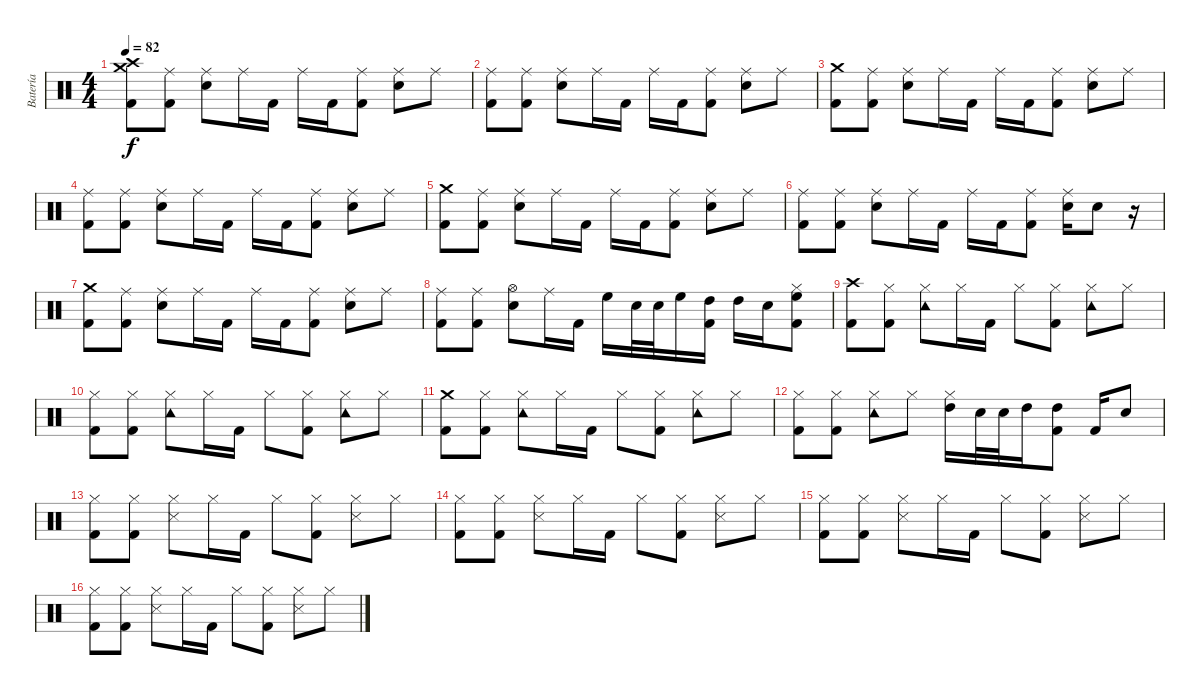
\track ("Batería" "Batería") {instrument percussion}
\staff {score}
\articulation defaults
\ts (4 4)
\tempo 82
\clef neutral
\ks c
("Crash medium (hit)" "Crash high (hit)" "Kick (hit) 2").8{dy f} ("Ride (middle)" "Kick (hit) 2").8 ("Ride (middle)" "Electric Snare (hit)").8 "Ride (middle)".16 "Kick (hit) 2".16 "Ride (middle)".16 "Kick (hit) 2".16 ("Ride (middle)" "Kick (hit) 2").8 ("Ride (middle)" "Electric Snare (hit)").8 "Ride (middle)".8 |
("Ride (middle)" "Kick (hit) 2").8 ("Ride (middle)" "Kick (hit) 2").8 ("Ride (middle)" "Electric Snare (hit)").8 "Ride (middle)".16 "Kick (hit) 2".16 "Ride (middle)".16 "Kick (hit) 2".16 ("Ride (middle)" "Kick (hit) 2").8 ("Ride (middle)" "Electric Snare (hit)").8 "Ride (middle)".8 |
("Crash medium (hit)" "Kick (hit) 2").8 ("Ride (middle)" "Kick (hit) 2").8 ("Ride (middle)" "Electric Snare (hit)").8 "Ride (middle)".16 "Kick (hit) 2".16 "Ride (middle)".16 "Kick (hit) 2".16 ("Ride (middle)" "Kick (hit) 2").8 ("Ride (middle)" "Electric Snare (hit)").8 "Ride (middle)".8 |
("Ride (middle)" "Kick (hit) 2").8 ("Ride (middle)" "Kick (hit) 2").8 ("Ride (middle)" "Electric Snare (hit)").8 "Ride (middle)".16 "Kick (hit) 2".16 "Ride (middle)".16 "Kick (hit) 2".16 ("Ride (middle)" "Kick (hit) 2").8 ("Ride (middle)" "Electric Snare (hit)").8 "Ride (middle)".8 |
("Crash medium (hit)" "Kick (hit) 2").8 ("Ride (middle)" "Kick (hit) 2").8 ("Ride (middle)" "Electric Snare (hit)").8 "Ride (middle)".16 "Kick (hit) 2".16 "Ride (middle)".16 "Kick (hit) 2".16 ("Ride (middle)" "Kick (hit) 2").8 ("Ride (middle)" "Electric Snare (hit)").8 "Ride (middle)".8 |
("Ride (middle)" "Kick (hit) 2").8 ("Ride (middle)" "Kick (hit) 2").8 ("Ride (middle)" "Electric Snare (hit)").8 "Ride (middle)".16 "Kick (hit) 2".16 "Ride (middle)".16 "Kick (hit) 2".16 ("Ride (middle)" "Kick (hit) 2").8 ("Ride (middle)" "Electric Snare (hit)").16 "Electric Snare (hit)".8 r.16 |
("Crash medium (hit)" "Kick (hit) 2").8 ("Ride (middle)" "Kick (hit) 2").8 ("Ride (middle)" "Electric Snare (hit)").8 "Ride (middle)".16 "Kick (hit) 2".16 "Ride (middle)".16 "Kick (hit) 2".16 ("Ride (middle)" "Kick (hit) 2").8 ("Ride (middle)" "Electric Snare (hit)").8 "Ride (middle)".8 |
("Ride (middle)" "Kick (hit) 2").8 ("Ride (middle)" "Kick (hit) 2").8 ("Hi-Hat (open)" "Electric Snare (hit)").8 "Ride (middle)".16 "Kick (hit) 2".16 "High Floor Tom (hit)".16 "Electric Snare (hit)".32 "Electric Snare (hit)".32 "High Floor Tom (hit)".16 ("Kick (hit) 2" "High Tom (hit)").16 "High Tom (hit)".16 "Electric Snare (hit)".16 ("Kick (hit) 2" "High Floor Tom (hit)" "Hi-Hat (closed)").8 |
("Crash high (hit)" "Kick (hit) 2").8 ("Hi-Hat (closed)" "Kick (hit) 2").8{volume 11} ("Hi-Hat (closed)" "Tambourine (hit)").8 "Hi-Hat (closed)".16 "Kick (hit) 2".16 "Hi-Hat (closed)".8 ("Hi-Hat (closed)" "Kick (hit) 2").8 ("Hi-Hat (closed)" "Tambourine (hit)").8 "Hi-Hat (closed)".8 |
("Hi-Hat (closed)" "Kick (hit) 2").8 ("Hi-Hat (closed)" "Kick (hit) 2").8 ("Hi-Hat (closed)" "Tambourine (hit)").8 "Hi-Hat (closed)".16 "Kick (hit) 2".16 "Hi-Hat (closed)".8 ("Hi-Hat (closed)" "Kick (hit) 2").8 ("Hi-Hat (closed)" "Tambourine (hit)").8 "Hi-Hat (closed)".8 |
("Crash medium (hit)" "Kick (hit) 2").8 ("Hi-Hat (closed)" "Kick (hit) 2").8 ("Hi-Hat (closed)" "Tambourine (hit)").8 "Hi-Hat (closed)".16 "Kick (hit) 2".16 "Hi-Hat (closed)".8 ("Hi-Hat (closed)" "Kick (hit) 2").8 ("Hi-Hat (closed)" "Tambourine (hit)").8 "Hi-Hat (closed)".8 |
("Hi-Hat (closed)" "Kick (hit) 2").8 ("Hi-Hat (closed)" "Kick (hit) 2").8 ("Hi-Hat (closed)" "Tambourine (hit)").8 "Hi-Hat (closed)".8 ("Hi-Hat (closed)" "High Tom (hit)").16 "Electric Snare (hit)".32 "Electric Snare (hit)".32 "High Tom (hit)".16 ("Kick (hit) 2" "High Tom (hit)").8 "Kick (hit) 2".16 "Electric Snare (hit)".8 |
("Hi-Hat (closed)" "Kick (hit) 2").8{volume 14} ("Hi-Hat (closed)" "Kick (hit) 2").8 ("Hi-Hat (closed)" "Snare (side stick) 3").8 "Hi-Hat (closed)".16 "Kick (hit) 2".16 "Hi-Hat (closed)".8 ("Hi-Hat (closed)" "Kick (hit) 2").8 ("Hi-Hat (closed)" "Snare (side stick) 3").8 "Hi-Hat (closed)".8 |
("Hi-Hat (closed)" "Kick (hit) 2").8 ("Hi-Hat (closed)" "Kick (hit) 2").8 ("Hi-Hat (closed)" "Snare (side stick) 3").8 "Hi-Hat (closed)".16 "Kick (hit) 2".16 "Hi-Hat (closed)".8 ("Hi-Hat (closed)" "Kick (hit) 2").8 ("Hi-Hat (closed)" "Snare (side stick) 3").8 "Hi-Hat (closed)".8 |
("Hi-Hat (closed)" "Kick (hit) 2").8 ("Hi-Hat (closed)" "Kick (hit) 2").8 ("Hi-Hat (closed)" "Snare (side stick) 3").8 "Hi-Hat (closed)".16 "Kick (hit) 2".16 "Hi-Hat (closed)".8 ("Hi-Hat (closed)" "Kick (hit) 2").8 ("Hi-Hat (closed)" "Snare (side stick) 3").8 "Hi-Hat (closed)".8 |
("Hi-Hat (closed)" "Kick (hit) 2").8 ("Hi-Hat (closed)" "Kick (hit) 2").8 ("Hi-Hat (closed)" "Snare (side stick) 3").8 "Hi-Hat (closed)".16 "Kick (hit) 2".16 "Hi-Hat (closed)".8 ("Hi-Hat (closed)" "Kick (hit) 2").8 ("Hi-Hat (closed)" "Snare (side stick) 3").8 "Hi-Hat (closed)".8
